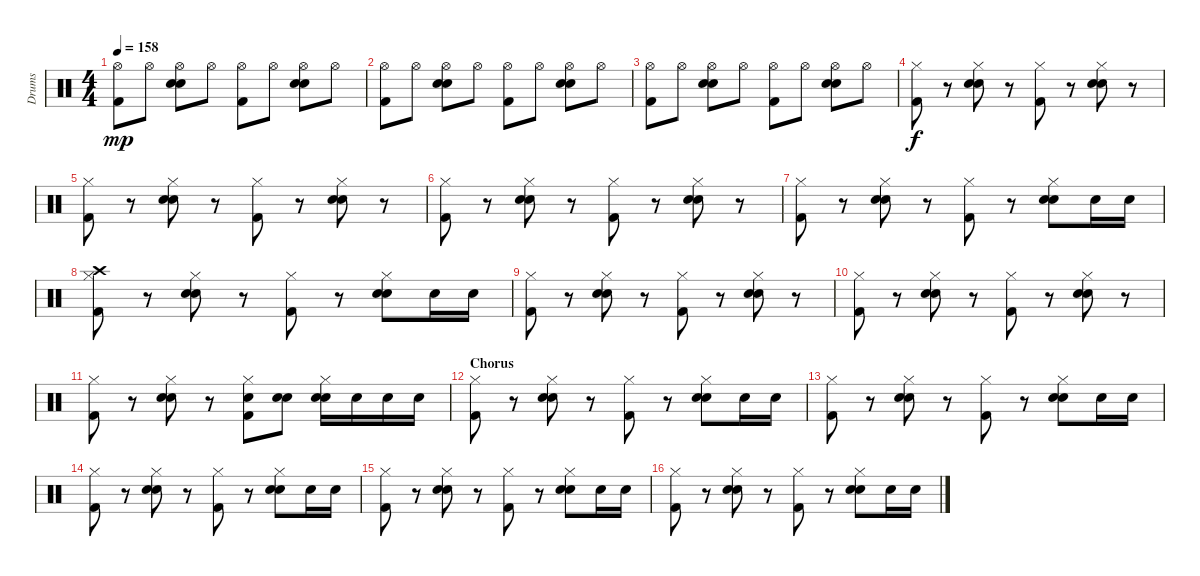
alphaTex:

\track ("Drums" "Drums") {instrument percussion}
\staff {score}
\articulation defaults
\ts (4 4)
\tempo 158
\clef neutral
\ks c
("Hi-Hat (open)" "Kick (hit) 2").8{dy mp} "Hi-Hat (open)".8 ("Hi-Hat (open)" "Electric Snare (hit)" "Snare (hit) 2").8 "Hi-Hat (open)".8 ("Hi-Hat (open)" "Kick (hit) 2").8 "Hi-Hat (open)".8 ("Hi-Hat (open)" "Electric Snare (hit)" "Snare (hit) 2").8 "Hi-Hat (open)".8 |
("Hi-Hat (open)" "Kick (hit) 2").8 "Hi-Hat (open)".8 ("Hi-Hat (open)" "Electric Snare (hit)" "Snare (hit) 2").8 "Hi-Hat (open)".8 ("Hi-Hat (open)" "Kick (hit) 2").8 "Hi-Hat (open)".8 ("Hi-Hat (open)" "Electric Snare (hit)" "Snare (hit) 2").8 "Hi-Hat (open)".8 |
("Hi-Hat (open)" "Kick (hit) 2").8 "Hi-Hat (open)".8 ("Hi-Hat (open)" "Electric Snare (hit)" "Snare (hit) 2").8 "Hi-Hat (open)".8 ("Hi-Hat (open)" "Kick (hit) 2").8 "Hi-Hat (open)".8 ("Hi-Hat (open)" "Electric Snare (hit)" "Snare (hit) 2").8 "Hi-Hat (open)".8 |
("Hi-Hat (closed)" "Kick (hit) 2").8{dy f} r.8 ("Hi-Hat (closed)" "Electric Snare (hit)" "Snare (hit) 2").8 r.8 ("Hi-Hat (closed)" "Kick (hit) 2").8 r.8 ("Hi-Hat (closed)" "Electric Snare (hit)" "Snare (hit) 2").8 r.8 |
("Hi-Hat (closed)" "Kick (hit) 2").8 r.8 ("Hi-Hat (closed)" "Electric Snare (hit)" "Snare (hit) 2").8 r.8 ("Hi-Hat (closed)" "Kick (hit) 2").8 r.8 ("Hi-Hat (closed)" "Electric Snare (hit)" "Snare (hit) 2").8 r.8 |
("Hi-Hat (closed)" "Kick (hit) 2").8 r.8 ("Hi-Hat (closed)" "Electric Snare (hit)" "Snare (hit) 2").8 r.8 ("Hi-Hat (closed)" "Kick (hit) 2").8 r.8 ("Hi-Hat (closed)" "Electric Snare (hit)" "Snare (hit) 2").8 r.8 |
("Hi-Hat (closed)" "Kick (hit) 2").8 r.8 ("Hi-Hat (closed)" "Electric Snare (hit)" "Snare (hit) 2").8 r.8 ("Hi-Hat (closed)" "Kick (hit) 2").8 r.8 ("Hi-Hat (closed)" "Electric Snare (hit)" "Snare (hit) 2").8 "Snare (hit) 2".16 "Snare (hit) 2".16 |
("Hi-Hat (closed)" "Crash high (hit)" "Kick (hit) 2").8 r.8 ("Hi-Hat (closed)" "Electric Snare (hit)" "Snare (hit) 2").8 r.8 ("Hi-Hat (closed)" "Kick (hit) 2").8 r.8 ("Hi-Hat (closed)" "Electric Snare (hit)" "Snare (hit) 2").8 "Snare (hit) 2".16 "Snare (hit) 2".16 |
("Hi-Hat (closed)" "Kick (hit) 2").8 r.8 ("Hi-Hat (closed)" "Electric Snare (hit)" "Snare (hit) 2").8 r.8 ("Hi-Hat (closed)" "Kick (hit) 2").8 r.8 ("Hi-Hat (closed)" "Electric Snare (hit)" "Snare (hit) 2").8 r.8 |
("Hi-Hat (closed)" "Kick (hit) 2").8 r.8 ("Hi-Hat (closed)" "Electric Snare (hit)" "Snare (hit) 2").8 r.8 ("Hi-Hat (closed)" "Kick (hit) 2").8 r.8 ("Hi-Hat (closed)" "Electric Snare (hit)" "Snare (hit) 2").8 r.8 |
("Hi-Hat (closed)" "Kick (hit) 2").8 r.8 ("Hi-Hat (closed)" "Electric Snare (hit)" "Snare (hit) 2").8 r.8 ("Hi-Hat (closed)" "Snare (hit) 2" "Kick (hit) 2").8 ("Snare (hit) 2" "Snare (hit) 2").8 ("Hi-Hat (closed)" "Electric Snare (hit)" "Snare (hit) 2").16 "Snare (hit) 2".16 "Snare (hit) 2".16 "Snare (hit) 2".16 |
\section ("" "Chorus")
("Hi-Hat (closed)" "Kick (hit) 2").8 r.8 ("Hi-Hat (closed)" "Electric Snare (hit)" "Snare (hit) 2").8 r.8 ("Hi-Hat (closed)" "Kick (hit) 2").8 r.8 ("Hi-Hat (closed)" "Electric Snare (hit)" "Snare (hit) 2").8 "Snare (hit) 2".16 "Snare (hit) 2".16 |
("Hi-Hat (closed)" "Kick (hit) 2").8 r.8 ("Hi-Hat (closed)" "Electric Snare (hit)" "Snare (hit) 2").8 r.8 ("Hi-Hat (closed)" "Kick (hit) 2").8 r.8 ("Hi-Hat (closed)" "Electric Snare (hit)" "Snare (hit) 2").8 "Snare (hit) 2".16 "Snare (hit) 2".16 |
("Hi-Hat (closed)" "Kick (hit) 2").8 r.8 ("Hi-Hat (closed)" "Electric Snare (hit)" "Snare (hit) 2").8 r.8 ("Hi-Hat (closed)" "Kick (hit) 2").8 r.8 ("Hi-Hat (closed)" "Electric Snare (hit)" "Snare (hit) 2").8 "Snare (hit) 2".16 "Snare (hit) 2".16 |
("Hi-Hat (closed)" "Kick (hit) 2").8 r.8 ("Hi-Hat (closed)" "Electric Snare (hit)" "Snare (hit) 2").8 r.8 ("Hi-Hat (closed)" "Kick (hit) 2").8 r.8 ("Hi-Hat (closed)" "Electric Snare (hit)" "Snare (hit) 2").8 "Snare (hit) 2".16 "Snare (hit) 2".16 |
("Hi-Hat (closed)" "Kick (hit) 2").8 r.8 ("Hi-Hat (closed)" "Electric Snare (hit)" "Snare (hit) 2").8 r.8 ("Hi-Hat (closed)" "Kick (hit) 2").8 r.8 ("Hi-Hat (closed)" "Electric Snare (hit)" "Snare (hit) 2").8 "Snare (hit) 2".16 "Snare (hit) 2".16
